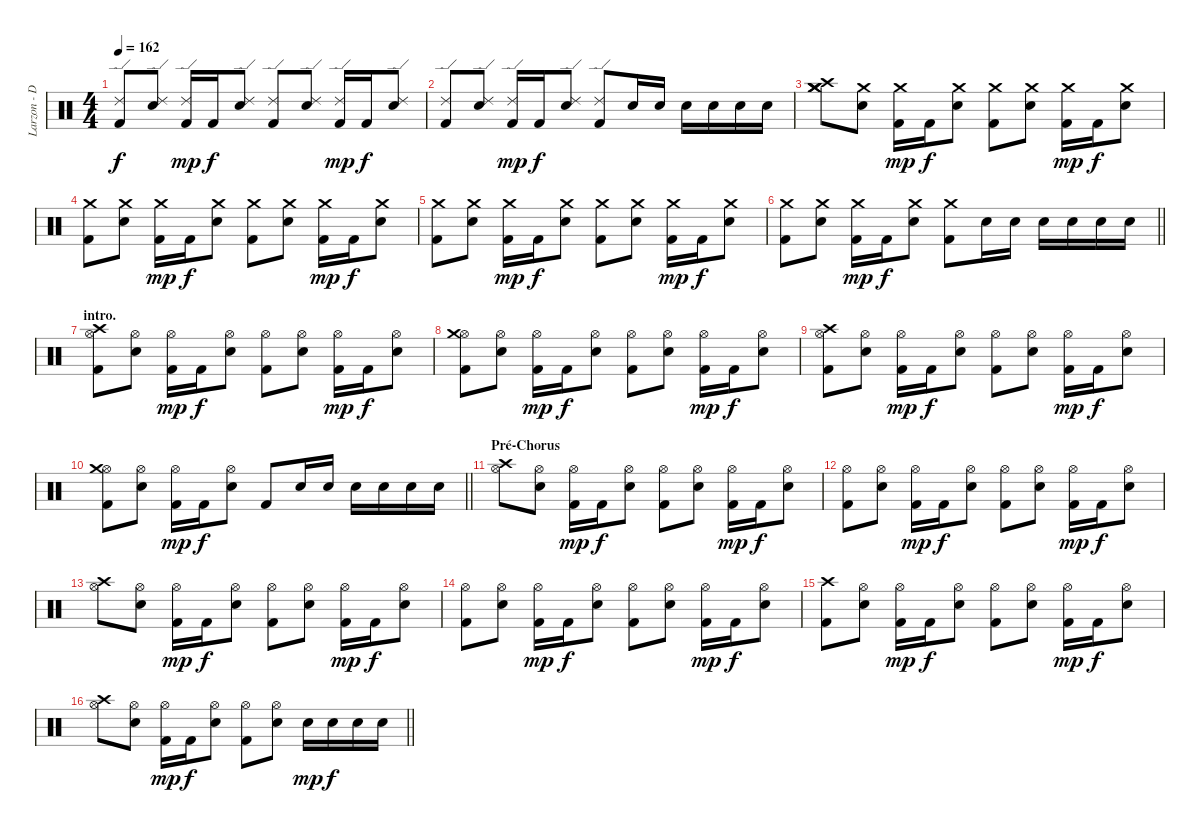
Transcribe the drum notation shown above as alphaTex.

\track ("Larzon - Drums" "Larzon - D") {instrument percussion}
\staff {score}
\articulation defaults
\ts (4 4)
\tempo 162
\clef neutral
\ks c
("Kick (hit) 2" "Ride (edge) 2").8{dy f} ("Snare (hit) 2" "Ride (edge) 2").8 ("Kick (hit) 2" "Ride (edge) 2").16{dy mp} "Kick (hit) 2".16{dy f} ("Snare (hit) 2" "Ride (edge) 2").8 ("Kick (hit) 2" "Ride (edge) 2").8 ("Snare (hit) 2" "Ride (edge) 2").8 ("Kick (hit) 2" "Ride (edge) 2").16{dy mp} "Kick (hit) 2".16{dy f} ("Snare (hit) 2" "Ride (edge) 2").8 |
("Kick (hit) 2" "Ride (edge) 2").8 ("Snare (hit) 2" "Ride (edge) 2").8 ("Kick (hit) 2" "Ride (edge) 2").16{dy mp} "Kick (hit) 2".16{dy f} ("Snare (hit) 2" "Ride (edge) 2").8 ("Kick (hit) 2" "Ride (edge) 2").8 "Snare (hit) 2".16 "Snare (hit) 2".16 "Snare (hit) 2".16 "Snare (hit) 2".16 "Snare (hit) 2".16 "Snare (hit) 2".16 |
("Crash medium (hit)" "Crash medium (hit)" "Crash medium (hit)" "Crash high (hit)").8 ("Snare (hit) 2" "Crash medium (hit)").8 ("Kick (hit) 2" "Crash medium (hit)").16{dy mp} "Kick (hit) 2".16{dy f} ("Snare (hit) 2" "Crash medium (hit)").8 ("Kick (hit) 2" "Crash medium (hit)").8 ("Snare (hit) 2" "Crash medium (hit)").8 ("Kick (hit) 2" "Crash medium (hit)").16{dy mp} "Kick (hit) 2".16{dy f} ("Snare (hit) 2" "Crash medium (hit)").8 |
("Kick (hit) 2" "Crash medium (hit)").8 ("Snare (hit) 2" "Crash medium (hit)").8 ("Kick (hit) 2" "Crash medium (hit)").16{dy mp} "Kick (hit) 2".16{dy f} ("Snare (hit) 2" "Crash medium (hit)").8 ("Kick (hit) 2" "Crash medium (hit)").8 ("Snare (hit) 2" "Crash medium (hit)").8 ("Kick (hit) 2" "Crash medium (hit)").16{dy mp} "Kick (hit) 2".16{dy f} ("Snare (hit) 2" "Crash medium (hit)").8 |
("Kick (hit) 2" "Crash medium (hit)").8 ("Snare (hit) 2" "Crash medium (hit)").8 ("Kick (hit) 2" "Crash medium (hit)").16{dy mp} "Kick (hit) 2".16{dy f} ("Snare (hit) 2" "Crash medium (hit)").8 ("Kick (hit) 2" "Crash medium (hit)").8 ("Snare (hit) 2" "Crash medium (hit)").8 ("Kick (hit) 2" "Crash medium (hit)").16{dy mp} "Kick (hit) 2".16{dy f} ("Snare (hit) 2" "Crash medium (hit)").8 |
\barLineRight lightlight
("Kick (hit) 2" "Crash medium (hit)").8 ("Snare (hit) 2" "Crash medium (hit)").8 ("Kick (hit) 2" "Crash medium (hit)").16{dy mp} "Kick (hit) 2".16{dy f} ("Snare (hit) 2" "Crash medium (hit)").8 ("Kick (hit) 2" "Crash medium (hit)").8 "Snare (hit) 2".16 "Snare (hit) 2".16 "Snare (hit) 2".16 "Snare (hit) 2".16 "Snare (hit) 2".16 "Snare (hit) 2".16 |
\section ("" "intro.")
("Kick (hit) 2" "Hi-Hat (open)" "Crash high (hit)").8 ("Snare (hit) 2" "Hi-Hat (open)").8 ("Kick (hit) 2" "Hi-Hat (open)").16{dy mp} "Kick (hit) 2".16{dy f} ("Snare (hit) 2" "Hi-Hat (open)").8 ("Kick (hit) 2" "Hi-Hat (open)").8 ("Snare (hit) 2" "Hi-Hat (open)").8 ("Kick (hit) 2" "Hi-Hat (open)").16{dy mp} "Kick (hit) 2".16{dy f} ("Snare (hit) 2" "Hi-Hat (open)").8 |
("Kick (hit) 2" "Hi-Hat (open)" "Crash medium (hit)").8 ("Snare (hit) 2" "Hi-Hat (open)").8 ("Kick (hit) 2" "Hi-Hat (open)").16{dy mp} "Kick (hit) 2".16{dy f} ("Snare (hit) 2" "Hi-Hat (open)").8 ("Kick (hit) 2" "Hi-Hat (open)").8 ("Snare (hit) 2" "Hi-Hat (open)").8 ("Kick (hit) 2" "Hi-Hat (open)").16{dy mp} "Kick (hit) 2".16{dy f} ("Snare (hit) 2" "Hi-Hat (open)").8 |
("Kick (hit) 2" "Hi-Hat (open)" "Crash high (hit)").8 ("Snare (hit) 2" "Hi-Hat (open)").8 ("Kick (hit) 2" "Hi-Hat (open)").16{dy mp} "Kick (hit) 2".16{dy f} ("Snare (hit) 2" "Hi-Hat (open)").8 ("Kick (hit) 2" "Hi-Hat (open)").8 ("Snare (hit) 2" "Hi-Hat (open)").8 ("Kick (hit) 2" "Hi-Hat (open)").16{dy mp} "Kick (hit) 2".16{dy f} ("Snare (hit) 2" "Hi-Hat (open)").8 |
\barLineRight lightlight
("Kick (hit) 2" "Hi-Hat (open)" "Crash medium (hit)").8 ("Snare (hit) 2" "Hi-Hat (open)").8 ("Kick (hit) 2" "Hi-Hat (open)").16{dy mp} "Kick (hit) 2".16{dy f} ("Snare (hit) 2" "Hi-Hat (open)").8 "Kick (hit) 2".8 "Snare (hit) 2".16 "Snare (hit) 2".16 "Snare (hit) 2".16 "Snare (hit) 2".16 "Snare (hit) 2".16 "Snare (hit) 2".16 |
\section ("" "Pré-Chorus")
("Crash high (hit)" "Hi-Hat (open)").8 ("Snare (hit) 2" "Hi-Hat (open)").8 ("Kick (hit) 2" "Hi-Hat (open)").16{dy mp} "Kick (hit) 2".16{dy f} ("Snare (hit) 2" "Hi-Hat (open)").8 ("Kick (hit) 2" "Hi-Hat (open)").8 ("Snare (hit) 2" "Hi-Hat (open)").8 ("Kick (hit) 2" "Hi-Hat (open)").16{dy mp} "Kick (hit) 2".16{dy f} ("Snare (hit) 2" "Hi-Hat (open)").8 |
("Kick (hit) 2" "Hi-Hat (open)").8 ("Snare (hit) 2" "Hi-Hat (open)").8 ("Kick (hit) 2" "Hi-Hat (open)").16{dy mp} "Kick (hit) 2".16{dy f} ("Snare (hit) 2" "Hi-Hat (open)").8 ("Kick (hit) 2" "Hi-Hat (open)").8 ("Snare (hit) 2" "Hi-Hat (open)").8 ("Kick (hit) 2" "Hi-Hat (open)").16{dy mp} "Kick (hit) 2".16{dy f} ("Snare (hit) 2" "Hi-Hat (open)").8 |
("Crash high (hit)" "Hi-Hat (open)").8 ("Snare (hit) 2" "Hi-Hat (open)").8 ("Kick (hit) 2" "Hi-Hat (open)").16{dy mp} "Kick (hit) 2".16{dy f} ("Snare (hit) 2" "Hi-Hat (open)").8 ("Kick (hit) 2" "Hi-Hat (open)").8 ("Snare (hit) 2" "Hi-Hat (open)").8 ("Kick (hit) 2" "Hi-Hat (open)").16{dy mp} "Kick (hit) 2".16{dy f} ("Snare (hit) 2" "Hi-Hat (open)").8 |
("Kick (hit) 2" "Hi-Hat (open)").8 ("Snare (hit) 2" "Hi-Hat (open)").8 ("Kick (hit) 2" "Hi-Hat (open)").16{dy mp} "Kick (hit) 2".16{dy f} ("Snare (hit) 2" "Hi-Hat (open)").8 ("Kick (hit) 2" "Hi-Hat (open)").8 ("Snare (hit) 2" "Hi-Hat (open)").8 ("Kick (hit) 2" "Hi-Hat (open)").16{dy mp} "Kick (hit) 2".16{dy f} ("Snare (hit) 2" "Hi-Hat (open)").8 |
("Kick (hit) 2" "Crash high (hit)").8 ("Snare (hit) 2" "Hi-Hat (open)").8 ("Kick (hit) 2" "Hi-Hat (open)").16{dy mp} "Kick (hit) 2".16{dy f} ("Snare (hit) 2" "Hi-Hat (open)").8 ("Kick (hit) 2" "Hi-Hat (open)").8 ("Snare (hit) 2" "Hi-Hat (open)").8 ("Kick (hit) 2" "Hi-Hat (open)").16{dy mp} "Kick (hit) 2".16{dy f} ("Snare (hit) 2" "Hi-Hat (open)").8 |
\barLineRight lightlight
("Crash high (hit)" "Hi-Hat (open)").8 ("Snare (hit) 2" "Hi-Hat (open)").8 ("Kick (hit) 2" "Hi-Hat (open)").16{dy mp} "Kick (hit) 2".16{dy f} ("Snare (hit) 2" "Hi-Hat (open)").8 ("Kick (hit) 2" "Hi-Hat (open)").8 ("Snare (hit) 2" "Hi-Hat (open)").8 "Snare (hit) 2".16{dy mp} "Snare (hit) 2".16{dy f} "Snare (hit) 2".16 "Snare (hit) 2".16
